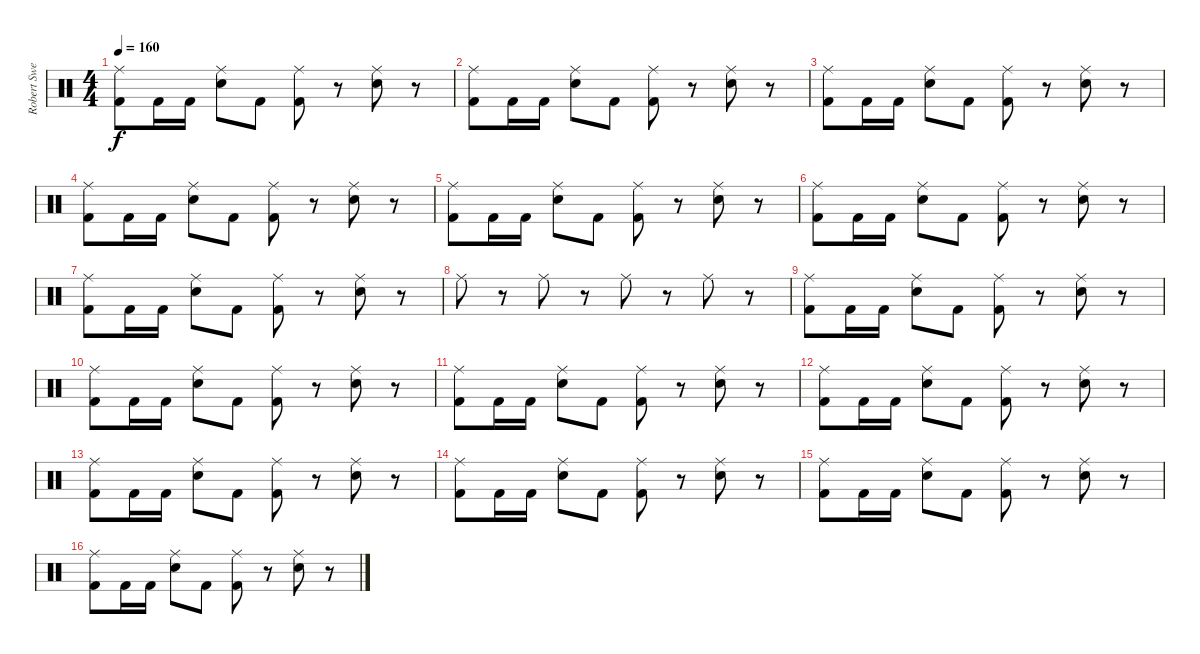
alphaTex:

\track ("Robert Sweet" "Robert Swe") {instrument percussion}
\staff {score}
\articulation defaults
\ts (4 4)
\tempo 160
\clef neutral
\ks c
("Ride (middle)" "Kick (hit) 2").8{dy f} "Kick (hit) 2".16 "Kick (hit) 2".16 ("Ride (middle)" "Electric Snare (hit)").8 "Kick (hit) 2".8 ("Ride (middle)" "Kick (hit) 2").8 r.8 ("Ride (middle)" "Electric Snare (hit)").8 r.8 |
("Ride (middle)" "Kick (hit) 2").8 "Kick (hit) 2".16 "Kick (hit) 2".16 ("Ride (middle)" "Electric Snare (hit)").8 "Kick (hit) 2".8 ("Ride (middle)" "Kick (hit) 2").8 r.8 ("Ride (middle)" "Electric Snare (hit)").8 r.8 |
("Ride (middle)" "Kick (hit) 2").8 "Kick (hit) 2".16 "Kick (hit) 2".16 ("Ride (middle)" "Electric Snare (hit)").8 "Kick (hit) 2".8 ("Ride (middle)" "Kick (hit) 2").8 r.8 ("Ride (middle)" "Electric Snare (hit)").8 r.8 |
("Ride (middle)" "Kick (hit) 2").8 "Kick (hit) 2".16 "Kick (hit) 2".16 ("Ride (middle)" "Electric Snare (hit)").8 "Kick (hit) 2".8 ("Ride (middle)" "Kick (hit) 2").8 r.8 ("Ride (middle)" "Electric Snare (hit)").8 r.8 |
("Ride (middle)" "Kick (hit) 2").8 "Kick (hit) 2".16 "Kick (hit) 2".16 ("Ride (middle)" "Electric Snare (hit)").8 "Kick (hit) 2".8 ("Ride (middle)" "Kick (hit) 2").8 r.8 ("Ride (middle)" "Electric Snare (hit)").8 r.8 |
("Ride (middle)" "Kick (hit) 2").8 "Kick (hit) 2".16 "Kick (hit) 2".16 ("Ride (middle)" "Electric Snare (hit)").8 "Kick (hit) 2".8 ("Ride (middle)" "Kick (hit) 2").8 r.8 ("Ride (middle)" "Electric Snare (hit)").8 r.8 |
("Ride (middle)" "Kick (hit) 2").8 "Kick (hit) 2".16 "Kick (hit) 2".16 ("Ride (middle)" "Electric Snare (hit)").8 "Kick (hit) 2".8 ("Ride (middle)" "Kick (hit) 2").8 r.8 ("Ride (middle)" "Electric Snare (hit)").8 r.8 |
"Ride (middle)".8 r.8 "Ride (middle)".8 r.8 "Ride (middle)".8 r.8 "Ride (middle)".8 r.8 |
("Ride (middle)" "Kick (hit) 2").8 "Kick (hit) 2".16 "Kick (hit) 2".16 ("Ride (middle)" "Electric Snare (hit)").8 "Kick (hit) 2".8 ("Ride (middle)" "Kick (hit) 2").8 r.8 ("Ride (middle)" "Electric Snare (hit)").8 r.8 |
("Ride (middle)" "Kick (hit) 2").8 "Kick (hit) 2".16 "Kick (hit) 2".16 ("Ride (middle)" "Electric Snare (hit)").8 "Kick (hit) 2".8 ("Ride (middle)" "Kick (hit) 2").8 r.8 ("Ride (middle)" "Electric Snare (hit)").8 r.8 |
("Ride (middle)" "Kick (hit) 2").8 "Kick (hit) 2".16 "Kick (hit) 2".16 ("Ride (middle)" "Electric Snare (hit)").8 "Kick (hit) 2".8 ("Ride (middle)" "Kick (hit) 2").8 r.8 ("Ride (middle)" "Electric Snare (hit)").8 r.8 |
("Ride (middle)" "Kick (hit) 2").8 "Kick (hit) 2".16 "Kick (hit) 2".16 ("Ride (middle)" "Electric Snare (hit)").8 "Kick (hit) 2".8 ("Ride (middle)" "Kick (hit) 2").8 r.8 ("Ride (middle)" "Electric Snare (hit)").8 r.8 |
("Ride (middle)" "Kick (hit) 2").8 "Kick (hit) 2".16 "Kick (hit) 2".16 ("Ride (middle)" "Electric Snare (hit)").8 "Kick (hit) 2".8 ("Ride (middle)" "Kick (hit) 2").8 r.8 ("Ride (middle)" "Electric Snare (hit)").8 r.8 |
("Ride (middle)" "Kick (hit) 2").8 "Kick (hit) 2".16 "Kick (hit) 2".16 ("Ride (middle)" "Electric Snare (hit)").8 "Kick (hit) 2".8 ("Ride (middle)" "Kick (hit) 2").8 r.8 ("Ride (middle)" "Electric Snare (hit)").8 r.8 |
("Ride (middle)" "Kick (hit) 2").8 "Kick (hit) 2".16 "Kick (hit) 2".16 ("Ride (middle)" "Electric Snare (hit)").8 "Kick (hit) 2".8 ("Ride (middle)" "Kick (hit) 2").8 r.8 ("Ride (middle)" "Electric Snare (hit)").8 r.8 |
("Ride (middle)" "Kick (hit) 2").8 "Kick (hit) 2".16 "Kick (hit) 2".16 ("Ride (middle)" "Electric Snare (hit)").8 "Kick (hit) 2".8 ("Ride (middle)" "Kick (hit) 2").8 r.8 ("Ride (middle)" "Electric Snare (hit)").8 r.8
